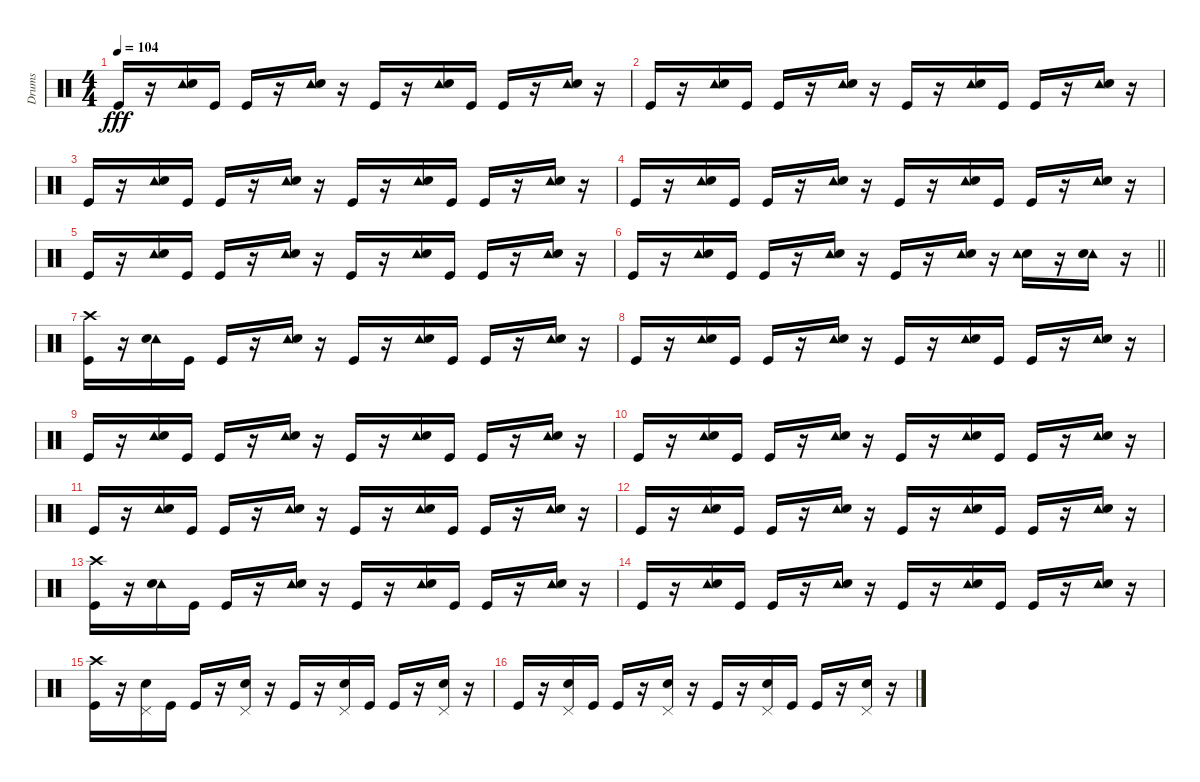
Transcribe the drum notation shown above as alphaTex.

\track ("Drums" "Drums") {instrument percussion}
\staff {score}
\articulation defaults
\ts (4 4)
\tempo 104
\clef neutral
\ks c "Kick (hit)".16{dy fff}
r.16 ("Tambourine (hit)" "Electric Snare (hit)").16 "Kick (hit)".16 "Kick (hit)".16 r.16 ("Tambourine (hit)" "Electric Snare (hit)").16 r.16 "Kick (hit)".16 r.16 ("Tambourine (hit)" "Electric Snare (hit)").16 "Kick (hit)".16 "Kick (hit)".16 r.16 ("Tambourine (hit)" "Electric Snare (hit)").16 r.16 |
"Kick (hit)".16 r.16 ("Tambourine (hit)" "Electric Snare (hit)").16 "Kick (hit)".16 "Kick (hit)".16 r.16 ("Tambourine (hit)" "Electric Snare (hit)").16 r.16 "Kick (hit)".16 r.16 ("Tambourine (hit)" "Electric Snare (hit)").16 "Kick (hit)".16 "Kick (hit)".16 r.16 ("Tambourine (hit)" "Electric Snare (hit)").16 r.16 |
"Kick (hit)".16 r.16 ("Tambourine (hit)" "Electric Snare (hit)").16 "Kick (hit)".16 "Kick (hit)".16 r.16 ("Tambourine (hit)" "Electric Snare (hit)").16 r.16 "Kick (hit)".16 r.16 ("Tambourine (hit)" "Electric Snare (hit)").16 "Kick (hit)".16 "Kick (hit)".16 r.16 ("Tambourine (hit)" "Electric Snare (hit)").16 r.16 |
"Kick (hit)".16 r.16 ("Tambourine (hit)" "Electric Snare (hit)").16 "Kick (hit)".16 "Kick (hit)".16 r.16 ("Tambourine (hit)" "Electric Snare (hit)").16 r.16 "Kick (hit)".16 r.16 ("Tambourine (hit)" "Electric Snare (hit)").16 "Kick (hit)".16 "Kick (hit)".16 r.16 ("Tambourine (hit)" "Electric Snare (hit)").16 r.16 |
"Kick (hit)".16 r.16 ("Tambourine (hit)" "Electric Snare (hit)").16 "Kick (hit)".16 "Kick (hit)".16 r.16 ("Tambourine (hit)" "Electric Snare (hit)").16 r.16 "Kick (hit)".16 r.16 ("Tambourine (hit)" "Electric Snare (hit)").16 "Kick (hit)".16 "Kick (hit)".16 r.16 ("Tambourine (hit)" "Electric Snare (hit)").16 r.16 |
\barLineRight lightlight "Kick (hit)".16
r.16 ("Tambourine (hit)" "Electric Snare (hit)").16 "Kick (hit)".16 "Kick (hit)".16 r.16 ("Tambourine (hit)" "Electric Snare (hit)").16 r.16 "Kick (hit)".16 r.16 ("Tambourine (hit)" "Electric Snare (hit)").16 r.16 ("Electric Snare (hit)" "Tambourine (hit)").16 r.16 ("Tambourine (hit)" "Electric Snare (hit)").16 r.16 |
("Kick (hit)" "Crash high (hit)").16 r.16 ("Tambourine (hit)" "Electric Snare (hit)").16 "Kick (hit)".16 "Kick (hit)".16 r.16 ("Tambourine (hit)" "Electric Snare (hit)").16 r.16 "Kick (hit)".16 r.16 ("Tambourine (hit)" "Electric Snare (hit)").16 "Kick (hit)".16 "Kick (hit)".16 r.16 ("Tambourine (hit)" "Electric Snare (hit)").16 r.16 |
"Kick (hit)".16 r.16 ("Tambourine (hit)" "Electric Snare (hit)").16 "Kick (hit)".16 "Kick (hit)".16 r.16 ("Tambourine (hit)" "Electric Snare (hit)").16 r.16 "Kick (hit)".16 r.16 ("Tambourine (hit)" "Electric Snare (hit)").16 "Kick (hit)".16 "Kick (hit)".16 r.16 ("Tambourine (hit)" "Electric Snare (hit)").16 r.16 |
"Kick (hit)".16 r.16 ("Tambourine (hit)" "Electric Snare (hit)").16 "Kick (hit)".16 "Kick (hit)".16 r.16 ("Tambourine (hit)" "Electric Snare (hit)").16 r.16 "Kick (hit)".16 r.16 ("Tambourine (hit)" "Electric Snare (hit)").16 "Kick (hit)".16 "Kick (hit)".16 r.16 ("Tambourine (hit)" "Electric Snare (hit)").16 r.16 |
"Kick (hit)".16 r.16 ("Tambourine (hit)" "Electric Snare (hit)").16 "Kick (hit)".16 "Kick (hit)".16 r.16 ("Tambourine (hit)" "Electric Snare (hit)").16 r.16 "Kick (hit)".16 r.16 ("Tambourine (hit)" "Electric Snare (hit)").16 "Kick (hit)".16 "Kick (hit)".16 r.16 ("Tambourine (hit)" "Electric Snare (hit)").16 r.16 |
"Kick (hit)".16 r.16 ("Tambourine (hit)" "Electric Snare (hit)").16 "Kick (hit)".16 "Kick (hit)".16 r.16 ("Tambourine (hit)" "Electric Snare (hit)").16 r.16 "Kick (hit)".16 r.16 ("Tambourine (hit)" "Electric Snare (hit)").16 "Kick (hit)".16 "Kick (hit)".16 r.16 ("Tambourine (hit)" "Electric Snare (hit)").16 r.16 |
"Kick (hit)".16 r.16 ("Tambourine (hit)" "Electric Snare (hit)").16 "Kick (hit)".16 "Kick (hit)".16 r.16 ("Tambourine (hit)" "Electric Snare (hit)").16 r.16 "Kick (hit)".16 r.16 ("Tambourine (hit)" "Electric Snare (hit)").16 "Kick (hit)".16 "Kick (hit)".16 r.16 ("Tambourine (hit)" "Electric Snare (hit)").16 r.16 |
("Kick (hit)" "Crash high (hit)").16 r.16 ("Tambourine (hit)" "Electric Snare (hit)").16 "Kick (hit)".16 "Kick (hit)".16 r.16 ("Tambourine (hit)" "Electric Snare (hit)").16 r.16 "Kick (hit)".16 r.16 ("Tambourine (hit)" "Electric Snare (hit)").16 "Kick (hit)".16 "Kick (hit)".16 r.16 ("Tambourine (hit)" "Electric Snare (hit)").16 r.16 |
"Kick (hit)".16 r.16 ("Tambourine (hit)" "Electric Snare (hit)").16 "Kick (hit)".16 "Kick (hit)".16 r.16 ("Tambourine (hit)" "Electric Snare (hit)").16 r.16 "Kick (hit)".16 r.16 ("Tambourine (hit)" "Electric Snare (hit)").16 "Kick (hit)".16 "Kick (hit)".16 r.16 ("Tambourine (hit)" "Electric Snare (hit)").16 r.16 |
("Kick (hit)" "Crash high (hit)").16 r.16 ("Pedal Hi-Hat (hit)" "Electric Snare (hit)").16 "Kick (hit)".16 "Kick (hit)".16 r.16 ("Pedal Hi-Hat (hit)" "Electric Snare (hit)").16 r.16 "Kick (hit)".16 r.16 ("Pedal Hi-Hat (hit)" "Electric Snare (hit)").16 "Kick (hit)".16 "Kick (hit)".16 r.16 ("Pedal Hi-Hat (hit)" "Electric Snare (hit)").16 r.16 |
"Kick (hit)".16 r.16 ("Pedal Hi-Hat (hit)" "Electric Snare (hit)").16 "Kick (hit)".16 "Kick (hit)".16 r.16 ("Pedal Hi-Hat (hit)" "Electric Snare (hit)").16 r.16 "Kick (hit)".16 r.16 ("Pedal Hi-Hat (hit)" "Electric Snare (hit)").16 "Kick (hit)".16 "Kick (hit)".16 r.16 ("Pedal Hi-Hat (hit)" "Electric Snare (hit)").16 r.16
